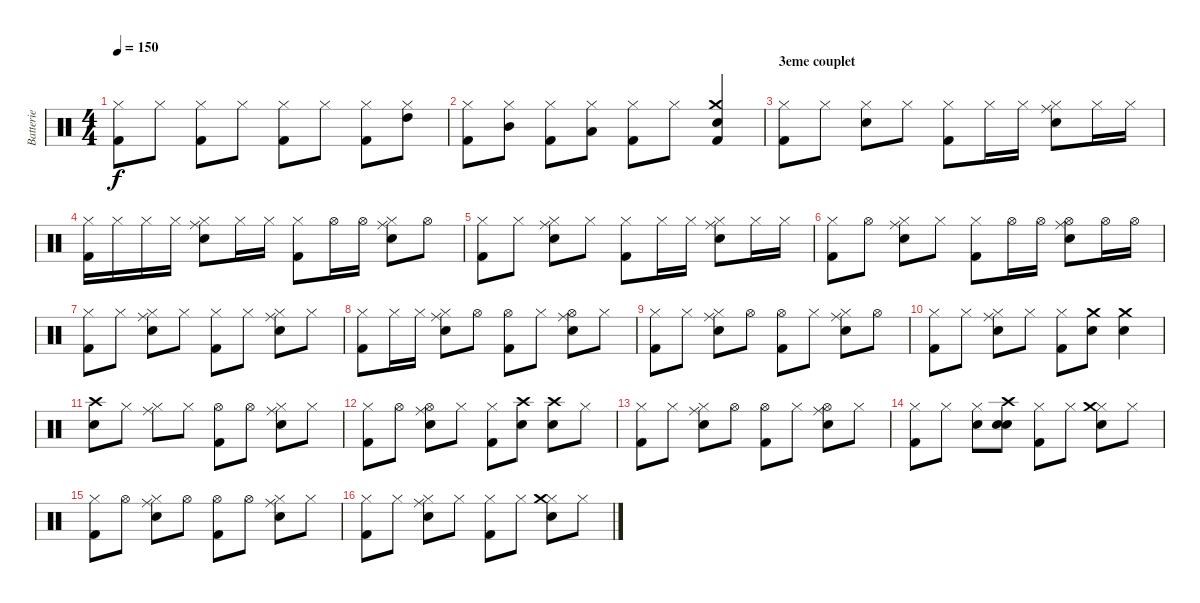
\track ("Batterie" "Batterie") {instrument percussion}
\staff {score}
\articulation defaults
\ts (4 4)
\tempo 150
\clef neutral
\ks c
("Hi-Hat (closed)" "Kick (hit) 2").8{dy f} "Hi-Hat (closed)".8 ("Hi-Hat (closed)" "Kick (hit) 2").8 "Hi-Hat (closed)".8 ("Hi-Hat (closed)" "Kick (hit) 2").8 "Hi-Hat (closed)".8 ("Hi-Hat (closed)" "Kick (hit) 2").8 ("Hi-Hat (closed)" "High Tom (hit)").8 |
("Hi-Hat (closed)" "Kick (hit) 2").8 ("Hi-Hat (closed)" "Mid Tom (hit)").8 ("Hi-Hat (closed)" "Kick (hit) 2").8 ("Hi-Hat (closed)" "Low Tom (hit)").8 ("Hi-Hat (closed)" "Kick (hit) 2").8 "Hi-Hat (closed)".8 ("Crash medium (hit)" "Kick (hit) 2" "Electric Snare (hit)").4 |
\section ("" "3eme couplet")
("Hi-Hat (closed)" "Kick (hit) 2").8 "Hi-Hat (closed)".8 ("Hi-Hat (closed)" "Electric Snare (hit)").8 "Hi-Hat (closed)".8 ("Hi-Hat (closed)" "Kick (hit) 2").8 "Hi-Hat (closed)".16 "Hi-Hat (closed)".16 ("Hi-Hat (closed)" "Electric Snare (hit)" "Ride (middle)").8 "Hi-Hat (closed)".16 "Hi-Hat (closed)".16 |
("Hi-Hat (closed)" "Kick (hit) 2").16 "Hi-Hat (closed)".16 "Hi-Hat (closed)".16 "Hi-Hat (closed)".16 ("Hi-Hat (closed)" "Electric Snare (hit)" "Ride (middle)").8 "Hi-Hat (closed)".16 "Hi-Hat (closed)".16 ("Hi-Hat (closed)" "Kick (hit) 2").8 "Hi-Hat (open)".16 "Hi-Hat (open)".16 ("Hi-Hat (closed)" "Electric Snare (hit)" "Ride (middle)").8 "Hi-Hat (open)".8 |
("Hi-Hat (closed)" "Kick (hit) 2").8 "Hi-Hat (closed)".8 ("Hi-Hat (closed)" "Electric Snare (hit)" "Ride (middle)").8 "Hi-Hat (closed)".8 ("Hi-Hat (closed)" "Kick (hit) 2").8 "Hi-Hat (closed)".16 "Hi-Hat (closed)".16 ("Hi-Hat (closed)" "Electric Snare (hit)" "Ride (middle)").8 "Hi-Hat (closed)".16 "Hi-Hat (closed)".16 |
("Hi-Hat (closed)" "Kick (hit) 2").8 "Hi-Hat (open)".8 ("Hi-Hat (closed)" "Electric Snare (hit)" "Ride (middle)").8 "Hi-Hat (closed)".8 ("Hi-Hat (closed)" "Kick (hit) 2").8 "Hi-Hat (open)".16 "Hi-Hat (open)".16 ("Hi-Hat (open)" "Electric Snare (hit)" "Ride (middle)").8 "Hi-Hat (open)".16 "Hi-Hat (open)".16 |
("Hi-Hat (closed)" "Kick (hit) 2").8 "Hi-Hat (closed)".8 ("Hi-Hat (closed)" "Electric Snare (hit)" "Ride (middle)").8 "Hi-Hat (closed)".8 ("Hi-Hat (closed)" "Kick (hit) 2").8 "Hi-Hat (closed)".8 ("Hi-Hat (closed)" "Electric Snare (hit)" "Ride (middle)").8 "Hi-Hat (closed)".8 |
("Hi-Hat (closed)" "Kick (hit) 2").8 "Hi-Hat (closed)".16 "Hi-Hat (closed)".16 ("Hi-Hat (closed)" "Electric Snare (hit)" "Ride (middle)").8 "Hi-Hat (open)".8 ("Hi-Hat (open)" "Kick (hit) 2").8 "Hi-Hat (closed)".8 ("Hi-Hat (open)" "Electric Snare (hit)" "Ride (middle)").8 "Hi-Hat (closed)".8 |
("Hi-Hat (closed)" "Kick (hit) 2").8 "Hi-Hat (closed)".8 ("Hi-Hat (closed)" "Electric Snare (hit)" "Ride (middle)").8 "Hi-Hat (open)".8 ("Hi-Hat (open)" "Kick (hit) 2").8 "Hi-Hat (closed)".8 ("Hi-Hat (closed)" "Electric Snare (hit)" "Ride (middle)").8 "Hi-Hat (open)".8 |
("Hi-Hat (closed)" "Kick (hit) 2").8 "Hi-Hat (closed)".8 ("Hi-Hat (closed)" "Electric Snare (hit)" "Ride (middle)").8 "Hi-Hat (closed)".8 ("Hi-Hat (closed)" "Kick (hit) 2").8 ("Electric Snare (hit)" "Crash medium (hit)").8 ("Electric Snare (hit)" "Crash medium (hit)").4 |
("Crash high (hit)" "Electric Snare (hit)").8 "Hi-Hat (closed)".8 ("Hi-Hat (closed)" "Ride (middle)").8 "Hi-Hat (closed)".8 ("Hi-Hat (open)" "Kick (hit) 2").8 "Hi-Hat (open)".8 ("Hi-Hat (closed)" "Electric Snare (hit)" "Ride (middle)").8 "Hi-Hat (closed)".8 |
("Hi-Hat (closed)" "Kick (hit) 2").8 "Hi-Hat (open)".8 ("Hi-Hat (open)" "Electric Snare (hit)" "Ride (middle)").8 "Hi-Hat (closed)".8 ("Hi-Hat (closed)" "Kick (hit) 2").8 ("Electric Snare (hit)" "Crash high (hit)").8 ("Electric Snare (hit)" "Crash high (hit)").8 "Hi-Hat (closed)".8 |
("Hi-Hat (closed)" "Kick (hit) 2").8 "Hi-Hat (closed)".8 ("Hi-Hat (closed)" "Electric Snare (hit)" "Ride (middle)").8 "Hi-Hat (open)".8 ("Hi-Hat (open)" "Kick (hit) 2").8 "Hi-Hat (closed)".8 ("Hi-Hat (open)" "Electric Snare (hit)" "Ride (middle)").8 "Hi-Hat (closed)".8 |
("Hi-Hat (closed)" "Kick (hit) 2").8 "Hi-Hat (closed)".8 ("Hi-Hat (closed)" "Electric Snare (hit)").8 ("Crash high (hit)" "Electric Snare (hit)" "Electric Snare (hit)").8 ("Hi-Hat (closed)" "Kick (hit) 2").8 "Hi-Hat (closed)".8 ("Hi-Hat (closed)" "Electric Snare (hit)" "Crash medium (hit)").8 "Hi-Hat (closed)".8 |
("Hi-Hat (closed)" "Kick (hit) 2").8 "Hi-Hat (open)".8 ("Hi-Hat (closed)" "Electric Snare (hit)" "Ride (middle)").8 "Hi-Hat (open)".8 ("Hi-Hat (open)" "Kick (hit) 2").8 "Hi-Hat (open)".8 ("Hi-Hat (closed)" "Electric Snare (hit)" "Ride (middle)").8 "Hi-Hat (closed)".8 |
("Hi-Hat (closed)" "Kick (hit) 2").8 "Hi-Hat (closed)".8 ("Hi-Hat (closed)" "Electric Snare (hit)" "Ride (middle)").8 "Hi-Hat (closed)".8 ("Hi-Hat (closed)" "Kick (hit) 2").8 "Hi-Hat (closed)".8 ("Hi-Hat (closed)" "Electric Snare (hit)" "Crash medium (hit)").8 "Hi-Hat (closed)".8
